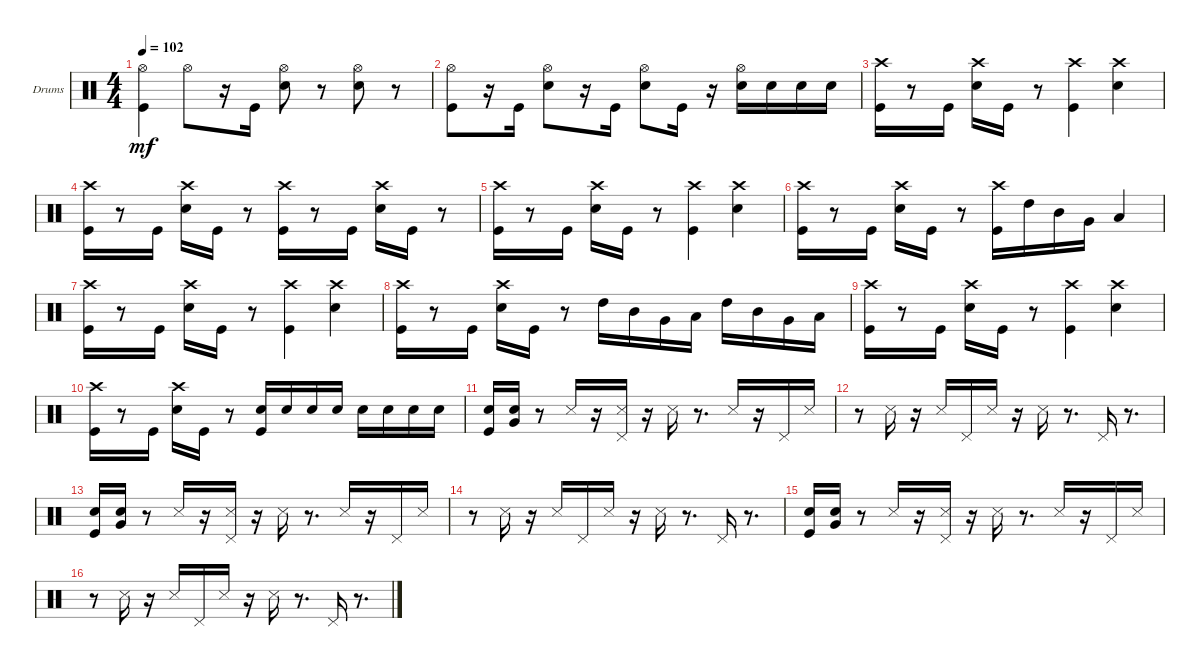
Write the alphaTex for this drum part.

\defaultSystemsLayout 4
\bracketExtendMode groupsimilarinstruments
\firstSystemTrackNameOrientation horizontal
\otherSystemsTrackNameOrientation horizontal
\track ("Drumkit" "Drums") {instrument percussion}
\staff {score}
\articulation defaults
\ts (4 4)
\tempo 102
\clef neutral
\ks c
("Hi-Hat (open)" "Kick (hit)").4{dy mf} "Hi-Hat (open)".8 r.16 "Kick (hit)".16 ("Hi-Hat (open)" "Snare (hit) 2").8 r.8 ("Hi-Hat (open)" "Snare (hit) 2").8 r.8 |
\scale
0.333333 ("Hi-Hat (open)" "Kick (hit)").8 r.16 "Kick (hit)".16 ("Hi-Hat (open)" "Snare (hit) 2").8 r.16 "Kick (hit)".16 ("Hi-Hat (open)" "Snare (hit) 2").8 "Kick (hit)".16 r.16 ("Hi-Hat (open)" "Snare (hit) 2").16 "Snare (hit) 2".16 "Snare (hit) 2".16 "Snare (hit) 2".16 |
\scale
0.333333 ("Crash high (hit)" "Kick (hit)").16 r.8 "Kick (hit)".16 ("Crash high (hit)" "Snare (hit) 2").16 "Kick (hit)".16 r.8 ("Crash high (hit)" "Kick (hit)").4 ("Crash high (hit)" "Snare (hit) 2").4 |
\scale
0.333333 ("Crash high (hit)" "Kick (hit)").16 r.8 "Kick (hit)".16 ("Crash high (hit)" "Snare (hit) 2").16 "Kick (hit)".16 r.8 ("Crash high (hit)" "Kick (hit)").16 r.8 "Kick (hit)".16 ("Crash high (hit)" "Snare (hit) 2").16 "Kick (hit)".16 r.8 |
\scale
0.333333 ("Crash high (hit)" "Kick (hit)").16 r.8 "Kick (hit)".16 ("Crash high (hit)" "Snare (hit) 2").16 "Kick (hit)".16 r.8 ("Crash high (hit)" "Kick (hit)").4 ("Crash high (hit)" "Snare (hit) 2").4 |
\scale
0.333333 ("Crash high (hit)" "Kick (hit)").16 r.8 "Kick (hit)".16 ("Crash high (hit)" "Snare (hit) 2").16 "Kick (hit)".16 r.8 ("Crash high (hit)" "Kick (hit)").16 "High Tom (hit)".16 "Mid Tom (hit)".16 "Very Low Tom (hit)".16 "Low Tom (hit)".4 |
\scale
0.333333 ("Crash high (hit)" "Kick (hit)").16 r.8 "Kick (hit)".16 ("Crash high (hit)" "Snare (hit) 2").16 "Kick (hit)".16 r.8 ("Crash high (hit)" "Kick (hit)").4 ("Crash high (hit)" "Snare (hit) 2").4 |
\scale
0.333333 ("Crash high (hit)" "Kick (hit)").16 r.8 "Kick (hit)".16 ("Crash high (hit)" "Snare (hit) 2").16 "Kick (hit)".16 r.8 "High Tom (hit)".16 "Mid Tom (hit)".16 "Very Low Tom (hit)".16 "Low Tom (hit)".16 "High Tom (hit)".16 "Mid Tom (hit)".16 "Very Low Tom (hit)".16 "Low Tom (hit)".16 |
\scale
0.333333 ("Crash high (hit)" "Kick (hit)").16 r.8 "Kick (hit)".16 ("Crash high (hit)" "Snare (hit) 2").16 "Kick (hit)".16 r.8 ("Crash high (hit)" "Kick (hit)").4 ("Crash high (hit)" "Snare (hit) 2").4 |
\scale
0.333333 ("Crash high (hit)" "Kick (hit)").16 r.8 "Kick (hit)".16 ("Crash high (hit)" "Snare (hit) 2").16 "Kick (hit)".16 r.8 ("Snare (hit) 2" "Kick (hit)").16 "Snare (hit) 2".16 "Snare (hit) 2".16 "Snare (hit) 2".16 "Snare (hit) 2".16 "Snare (hit) 2".16 "Snare (hit) 2".16 "Snare (hit) 2".16 |
\scale
0.333333 ("Snare (hit) 2" "Kick (hit)").16 ("Snare (hit) 2" "Very Low Tom (hit)").16 r.8 "Snare (side stick) 3".16 r.16 ("Pedal Hi-Hat (hit)" "Snare (side stick) 3").16 r.16 "Snare (side stick) 3".16 r.8{d} "Snare (side stick) 3".16 r.16 "Pedal Hi-Hat (hit)".16 "Snare (side stick) 3".16 |
\scale
0.333333 r.8 "Snare (side stick) 3".16 r.16 "Snare (side stick) 3".16 "Pedal Hi-Hat (hit)".16 "Snare (side stick) 3".16 r.16 "Snare (side stick) 3".16 r.8{d} "Pedal Hi-Hat (hit)".16 r.8{d} |
\scale
0.333333 ("Snare (hit) 2" "Kick (hit)").16 ("Snare (hit) 2" "Very Low Tom (hit)").16 r.8 "Snare (side stick) 3".16 r.16 ("Pedal Hi-Hat (hit)" "Snare (side stick) 3").16 r.16 "Snare (side stick) 3".16 r.8{d} "Snare (side stick) 3".16 r.16 "Pedal Hi-Hat (hit)".16 "Snare (side stick) 3".16 |
\scale
0.333333 r.8 "Snare (side stick) 3".16 r.16 "Snare (side stick) 3".16 "Pedal Hi-Hat (hit)".16 "Snare (side stick) 3".16 r.16 "Snare (side stick) 3".16 r.8{d} "Pedal Hi-Hat (hit)".16 r.8{d} |
\scale
0.333333 ("Snare (hit) 2" "Kick (hit)").16 ("Snare (hit) 2" "Very Low Tom (hit)").16 r.8 "Snare (side stick) 3".16 r.16 ("Pedal Hi-Hat (hit)" "Snare (side stick) 3").16 r.16 "Snare (side stick) 3".16 r.8{d} "Snare (side stick) 3".16 r.16 "Pedal Hi-Hat (hit)".16 "Snare (side stick) 3".16 |
\scale
0.333333 r.8 "Snare (side stick) 3".16 r.16 "Snare (side stick) 3".16 "Pedal Hi-Hat (hit)".16 "Snare (side stick) 3".16 r.16 "Snare (side stick) 3".16 r.8{d} "Pedal Hi-Hat (hit)".16 r.8{d}
